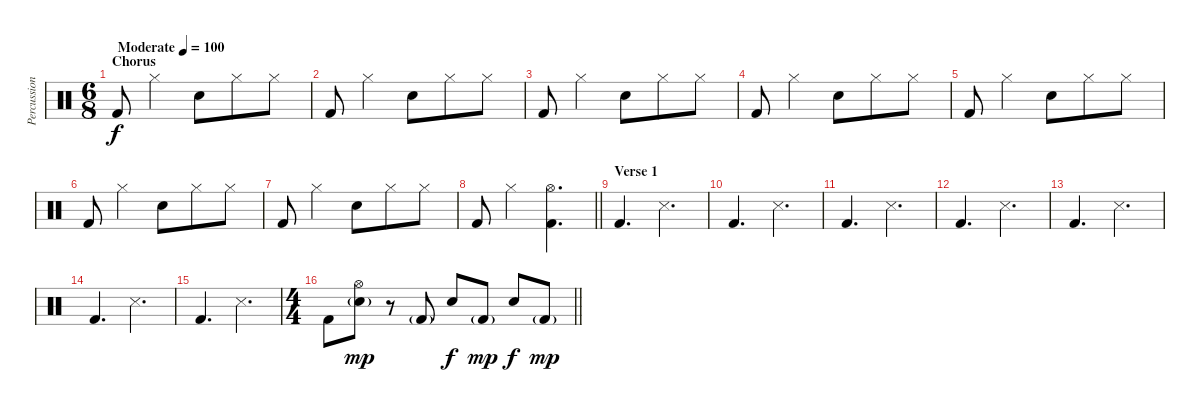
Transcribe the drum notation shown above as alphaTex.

\track ("Percussion" "Percussion") {instrument percussion}
\staff {score}
\articulation defaults
\ts (6 8)
\section ("" "Chorus")
\tempo (100 "Moderate")
\clef neutral
\ks c "Kick (hit) 2".8{dy f} "Hi-Hat (closed)".4 "Snare (hit) 2".8 "Hi-Hat (closed)".8 "Hi-Hat (closed)".8
|
"Kick (hit) 2".8 "Hi-Hat (closed)".4 "Snare (hit) 2".8 "Hi-Hat (closed)".8 "Hi-Hat (closed)".8 |
"Kick (hit) 2".8 "Hi-Hat (closed)".4 "Snare (hit) 2".8 "Hi-Hat (closed)".8 "Hi-Hat (closed)".8 |
"Kick (hit) 2".8 "Hi-Hat (closed)".4 "Snare (hit) 2".8 "Hi-Hat (closed)".8 "Hi-Hat (closed)".8 |
"Kick (hit) 2".8 "Hi-Hat (closed)".4 "Snare (hit) 2".8 "Hi-Hat (closed)".8 "Hi-Hat (closed)".8 |
"Kick (hit) 2".8 "Hi-Hat (closed)".4 "Snare (hit) 2".8 "Hi-Hat (closed)".8 "Hi-Hat (closed)".8 |
"Kick (hit) 2".8 "Hi-Hat (closed)".4 "Snare (hit) 2".8 "Hi-Hat (closed)".8 "Hi-Hat (closed)".8 |
\barLineRight lightlight "Kick (hit) 2".8 "Hi-Hat (closed)".4
("Hi-Hat (open)" "Kick (hit) 2").4{d} |
\section ("" "Verse 1")
"Kick (hit) 2".4{d} "Snare (side stick) 3".4{d} |
"Kick (hit) 2".4{d} "Snare (side stick) 3".4{d} |
"Kick (hit) 2".4{d} "Snare (side stick) 3".4{d} |
"Kick (hit) 2".4{d} "Snare (side stick) 3".4{d} |
"Kick (hit) 2".4{d} "Snare (side stick) 3".4{d} |
"Kick (hit) 2".4{d} "Snare (side stick) 3".4{d} |
"Kick (hit) 2".4{d} "Snare (side stick) 3".4{d} |
\ts (4 4)
\barLineRight lightlight "Kick (hit) 2".8
("Hi-Hat (open)" "Snare (hit) 2"{g}).8{dy mp} r.8 "Kick (hit) 2"{g}.8 "Snare (hit) 2".8{dy f} "Kick (hit) 2"{g}.8{dy mp} "Snare (hit) 2".8{dy f} "Kick (hit) 2"{g}.8{dy mp}
